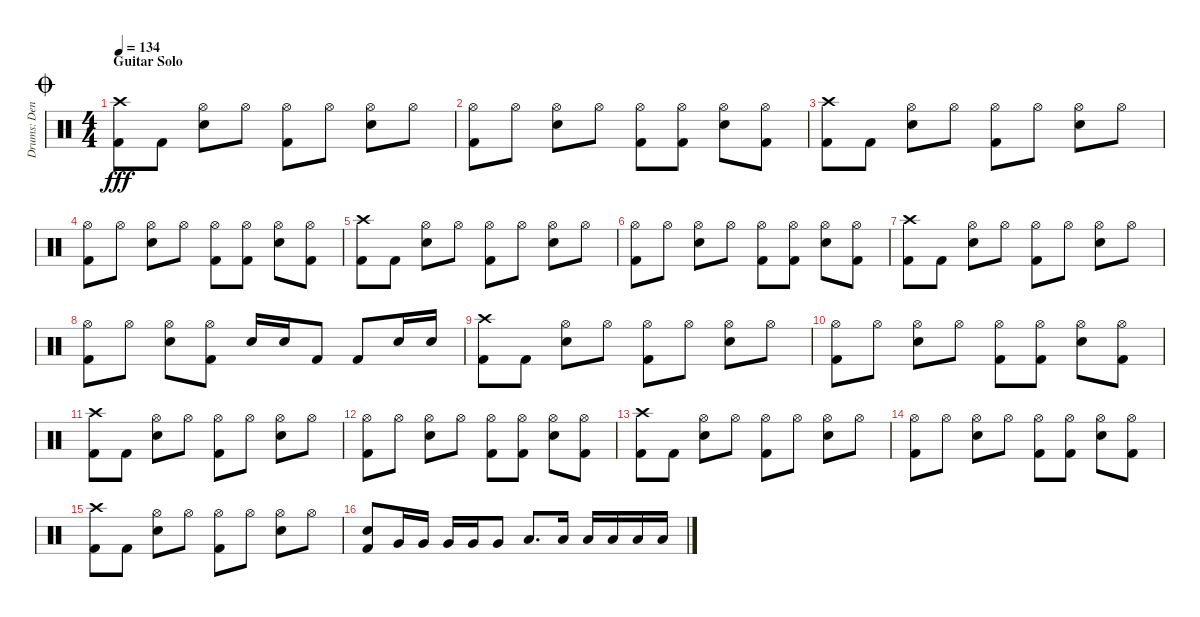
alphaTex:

\track ("Drums: Denny" "Drums: Den") {instrument percussion}
\staff {score}
\articulation defaults
\ts (4 4)
\section ("" "Guitar Solo")
\jump coda
\tempo 134
\clef neutral
\ks c
("Crash high (hit)" "Kick (hit) 2").8{dy fff} "Kick (hit) 2".8 ("Hi-Hat (open)" "Snare (hit) 2").8 "Hi-Hat (open)".8 ("Hi-Hat (open)" "Kick (hit) 2").8 "Hi-Hat (open)".8 ("Hi-Hat (open)" "Snare (hit) 2").8 "Hi-Hat (open)".8 |
("Hi-Hat (open)" "Kick (hit) 2").8 "Hi-Hat (open)".8 ("Hi-Hat (open)" "Snare (hit) 2").8 "Hi-Hat (open)".8 ("Hi-Hat (open)" "Kick (hit) 2").8 ("Hi-Hat (open)" "Kick (hit) 2").8 ("Hi-Hat (open)" "Snare (hit) 2").8 ("Hi-Hat (open)" "Kick (hit) 2").8 |
("Crash high (hit)" "Kick (hit) 2").8 "Kick (hit) 2".8 ("Hi-Hat (open)" "Snare (hit) 2").8 "Hi-Hat (open)".8 ("Hi-Hat (open)" "Kick (hit) 2").8 "Hi-Hat (open)".8 ("Hi-Hat (open)" "Snare (hit) 2").8 "Hi-Hat (open)".8 |
("Hi-Hat (open)" "Kick (hit) 2").8 "Hi-Hat (open)".8 ("Hi-Hat (open)" "Snare (hit) 2").8 "Hi-Hat (open)".8 ("Hi-Hat (open)" "Kick (hit) 2").8 ("Hi-Hat (open)" "Kick (hit) 2").8 ("Hi-Hat (open)" "Snare (hit) 2").8 ("Hi-Hat (open)" "Kick (hit) 2").8 |
("Crash high (hit)" "Kick (hit) 2").8 "Kick (hit) 2".8 ("Hi-Hat (open)" "Snare (hit) 2").8 "Hi-Hat (open)".8 ("Hi-Hat (open)" "Kick (hit) 2").8 "Hi-Hat (open)".8 ("Hi-Hat (open)" "Snare (hit) 2").8 "Hi-Hat (open)".8 |
("Hi-Hat (open)" "Kick (hit) 2").8 "Hi-Hat (open)".8 ("Hi-Hat (open)" "Snare (hit) 2").8 "Hi-Hat (open)".8 ("Hi-Hat (open)" "Kick (hit) 2").8 ("Hi-Hat (open)" "Kick (hit) 2").8 ("Hi-Hat (open)" "Snare (hit) 2").8 ("Hi-Hat (open)" "Kick (hit) 2").8 |
("Crash high (hit)" "Kick (hit) 2").8 "Kick (hit) 2".8 ("Hi-Hat (open)" "Snare (hit) 2").8 "Hi-Hat (open)".8 ("Hi-Hat (open)" "Kick (hit) 2").8 "Hi-Hat (open)".8 ("Hi-Hat (open)" "Snare (hit) 2").8 "Hi-Hat (open)".8 |
("Hi-Hat (open)" "Kick (hit) 2").8 "Hi-Hat (open)".8 ("Hi-Hat (open)" "Snare (hit) 2").8 ("Hi-Hat (open)" "Kick (hit) 2").8 "Snare (hit) 2".16 "Snare (hit) 2".16 "Kick (hit) 2".8 "Kick (hit) 2".8 "Snare (hit) 2".16 "Snare (hit) 2".16 |
("Crash high (hit)" "Kick (hit) 2").8 "Kick (hit) 2".8 ("Hi-Hat (open)" "Snare (hit) 2").8 "Hi-Hat (open)".8 ("Hi-Hat (open)" "Kick (hit) 2").8 "Hi-Hat (open)".8 ("Hi-Hat (open)" "Snare (hit) 2").8 "Hi-Hat (open)".8 |
("Hi-Hat (open)" "Kick (hit) 2").8 "Hi-Hat (open)".8 ("Hi-Hat (open)" "Snare (hit) 2").8 "Hi-Hat (open)".8 ("Hi-Hat (open)" "Kick (hit) 2").8 ("Hi-Hat (open)" "Kick (hit) 2").8 ("Hi-Hat (open)" "Snare (hit) 2").8 ("Hi-Hat (open)" "Kick (hit) 2").8 |
("Crash high (hit)" "Kick (hit) 2").8 "Kick (hit) 2".8 ("Hi-Hat (open)" "Snare (hit) 2").8 "Hi-Hat (open)".8 ("Hi-Hat (open)" "Kick (hit) 2").8 "Hi-Hat (open)".8 ("Hi-Hat (open)" "Snare (hit) 2").8 "Hi-Hat (open)".8 |
("Hi-Hat (open)" "Kick (hit) 2").8 "Hi-Hat (open)".8 ("Hi-Hat (open)" "Snare (hit) 2").8 "Hi-Hat (open)".8 ("Hi-Hat (open)" "Kick (hit) 2").8 ("Hi-Hat (open)" "Kick (hit) 2").8 ("Hi-Hat (open)" "Snare (hit) 2").8 ("Hi-Hat (open)" "Kick (hit) 2").8 |
("Crash high (hit)" "Kick (hit) 2").8 "Kick (hit) 2".8 ("Hi-Hat (open)" "Snare (hit) 2").8 "Hi-Hat (open)".8 ("Hi-Hat (open)" "Kick (hit) 2").8 "Hi-Hat (open)".8 ("Hi-Hat (open)" "Snare (hit) 2").8 "Hi-Hat (open)".8 |
("Hi-Hat (open)" "Kick (hit) 2").8 "Hi-Hat (open)".8 ("Hi-Hat (open)" "Snare (hit) 2").8 "Hi-Hat (open)".8 ("Hi-Hat (open)" "Kick (hit) 2").8 ("Hi-Hat (open)" "Kick (hit) 2").8 ("Hi-Hat (open)" "Snare (hit) 2").8 ("Hi-Hat (open)" "Kick (hit) 2").8 |
("Crash high (hit)" "Kick (hit) 2").8 "Kick (hit) 2".8 ("Hi-Hat (open)" "Snare (hit) 2").8 "Hi-Hat (open)".8 ("Hi-Hat (open)" "Kick (hit) 2").8 "Hi-Hat (open)".8 ("Hi-Hat (open)" "Snare (hit) 2").8 "Hi-Hat (open)".8 |
("Snare (hit) 2" "Kick (hit) 2").8 "Very Low Tom (hit)".16 "Very Low Tom (hit)".16 "Very Low Tom (hit)".16 "Very Low Tom (hit)".16 "Very Low Tom (hit)".8 "Low Floor Tom (hit)".8{d} "Low Floor Tom (hit)".16 "Low Floor Tom (hit)".16 "Low Floor Tom (hit)".16 "Low Floor Tom (hit)".16 "Low Floor Tom (hit)".16
